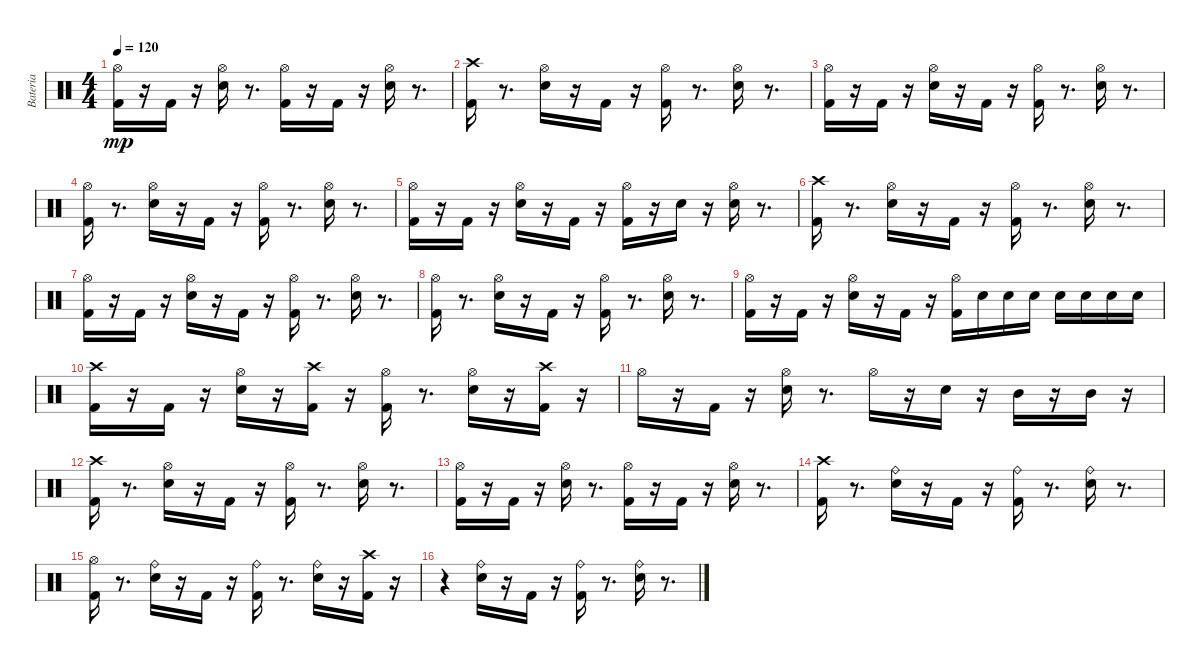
\track ("Bateria" "Bateria") {instrument percussion}
\staff {score}
\articulation defaults
\ts (4 4)
\tempo 120
\clef neutral
\ks c
("Hi-Hat (open)" "Kick (hit) 2").16{dy mp} r.16 "Kick (hit) 2".16 r.16 ("Hi-Hat (open)" "Snare (hit) 2").16 r.8{d} ("Hi-Hat (open)" "Kick (hit) 2").16 r.16 "Kick (hit) 2".16 r.16 ("Hi-Hat (open)" "Snare (hit) 2").16 r.8{d} |
("Kick (hit) 2" "Crash high (hit)").16 r.8{d} ("Snare (hit) 2" "Hi-Hat (open)").16 r.16 "Kick (hit) 2".16 r.16 ("Hi-Hat (open)" "Kick (hit) 2").16 r.8{d} ("Hi-Hat (open)" "Snare (hit) 2").16 r.8{d} |
("Hi-Hat (open)" "Kick (hit) 2").16 r.16 "Kick (hit) 2".16 r.16 ("Hi-Hat (open)" "Snare (hit) 2").16 r.16 "Kick (hit) 2".16 r.16 ("Hi-Hat (open)" "Kick (hit) 2").16 r.8{d} ("Hi-Hat (open)" "Snare (hit) 2").16 r.8{d} |
("Hi-Hat (open)" "Kick (hit) 2").16 r.8{d} ("Snare (hit) 2" "Hi-Hat (open)").16 r.16 "Kick (hit) 2".16 r.16 ("Hi-Hat (open)" "Kick (hit) 2").16 r.8{d} ("Hi-Hat (open)" "Snare (hit) 2").16 r.8{d} |
("Hi-Hat (open)" "Kick (hit) 2").16 r.16 "Kick (hit) 2".16 r.16 ("Hi-Hat (open)" "Snare (hit) 2").16 r.16 "Kick (hit) 2".16 r.16 ("Hi-Hat (open)" "Kick (hit) 2").16 r.16 "Snare (hit) 2".16 r.16 ("Hi-Hat (open)" "Snare (hit) 2").16 r.8{d} |
("Kick (hit) 2" "Crash high (hit)").16 r.8{d} ("Snare (hit) 2" "Hi-Hat (open)").16 r.16 "Kick (hit) 2".16 r.16 ("Hi-Hat (open)" "Kick (hit) 2").16 r.8{d} ("Hi-Hat (open)" "Snare (hit) 2").16 r.8{d} |
("Hi-Hat (open)" "Kick (hit) 2").16 r.16 "Kick (hit) 2".16 r.16 ("Hi-Hat (open)" "Snare (hit) 2").16 r.16 "Kick (hit) 2".16 r.16 ("Hi-Hat (open)" "Kick (hit) 2").16 r.8{d} ("Hi-Hat (open)" "Snare (hit) 2").16 r.8{d} |
("Hi-Hat (open)" "Kick (hit) 2").16 r.8{d} ("Snare (hit) 2" "Hi-Hat (open)").16 r.16 "Kick (hit) 2".16 r.16 ("Hi-Hat (open)" "Kick (hit) 2").16 r.8{d} ("Hi-Hat (open)" "Snare (hit) 2").16 r.8{d} |
("Hi-Hat (open)" "Kick (hit) 2").16 r.16 "Kick (hit) 2".16 r.16 ("Hi-Hat (open)" "Snare (hit) 2").16 r.16 "Kick (hit) 2".16 r.16 ("Hi-Hat (open)" "Kick (hit) 2").16 "Snare (hit) 2".16 "Snare (hit) 2".16 "Snare (hit) 2".16 "Snare (hit) 2".16 "Snare (hit) 2".16 "Snare (hit) 2".16 "Snare (hit) 2".16 |
("Crash high (hit)" "Kick (hit) 2").16 r.16 "Kick (hit) 2".16 r.16 ("Hi-Hat (open)" "Snare (hit) 2").16 r.16 ("Crash high (hit)" "Kick (hit) 2").16 r.16 ("Hi-Hat (open)" "Kick (hit) 2").16 r.8{d} ("Hi-Hat (open)" "Snare (hit) 2").16 r.16 ("Kick (hit) 2" "Crash high (hit)").16 r.16 |
"Hi-Hat (open)".16 r.16 "Kick (hit) 2".16 r.16 ("Hi-Hat (open)" "Snare (hit) 2").16 r.8{d} "Hi-Hat (open)".16 r.16 "Snare (hit) 2".16 r.16 "Mid Tom (hit)".16 r.16 "Mid Tom (hit)".16 r.16 |
("Kick (hit) 2" "Crash high (hit)").16 r.8{d} ("Snare (hit) 2" "Hi-Hat (open)").16 r.16 "Kick (hit) 2".16 r.16 ("Hi-Hat (open)" "Kick (hit) 2").16 r.8{d} ("Hi-Hat (open)" "Snare (hit) 2").16 r.8{d} |
("Hi-Hat (open)" "Kick (hit) 2").16 r.16 "Kick (hit) 2".16 r.16 ("Hi-Hat (open)" "Snare (hit) 2").16 r.8{d} ("Hi-Hat (open)" "Kick (hit) 2").16 r.16 "Kick (hit) 2".16 r.16 ("Hi-Hat (open)" "Snare (hit) 2").16 r.8{d} |
("Kick (hit) 2" "Crash high (hit)").16 r.8{d} ("Ride (bell)" "Snare (hit) 2").16 r.16 "Kick (hit) 2".16 r.16 ("Ride (bell)" "Kick (hit) 2").16 r.8{d} ("Ride (bell)" "Snare (hit) 2").16 r.8{d} |
("Hi-Hat (open)" "Kick (hit) 2").16 r.8{d} ("Ride (bell)" "Snare (hit) 2").16 r.16 "Kick (hit) 2".16 r.16 ("Ride (bell)" "Kick (hit) 2").16 r.8{d} ("Ride (bell)" "Snare (hit) 2").16 r.16 ("Crash high (hit)" "Kick (hit) 2").16 r.16 |
r.4 ("Ride (bell)" "Snare (hit) 2").16 r.16 "Kick (hit) 2".16 r.16 ("Ride (bell)" "Kick (hit) 2").16 r.8{d} ("Ride (bell)" "Snare (hit) 2").16 r.8{d}
